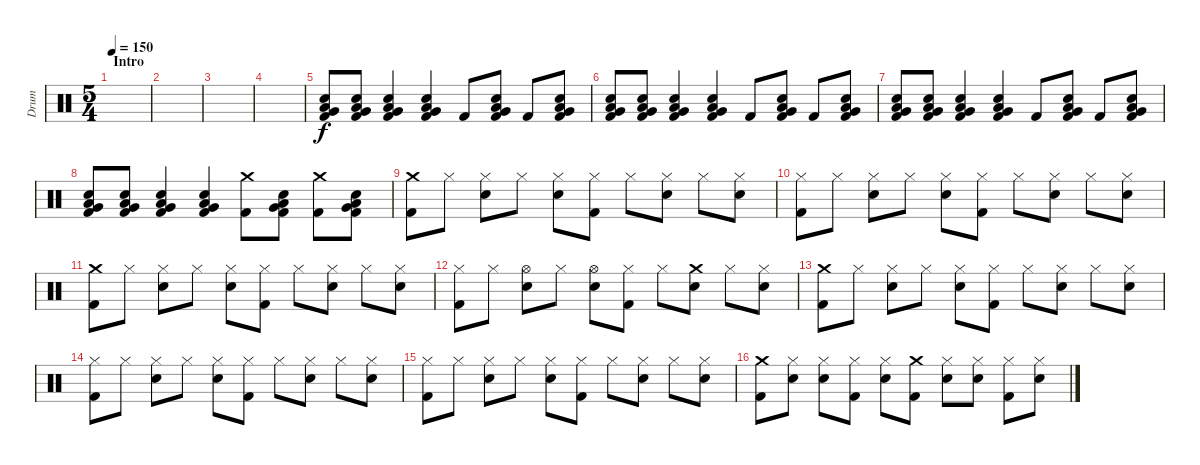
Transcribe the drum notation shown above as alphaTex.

\track ("Drum" "Drum") {instrument percussion}
\staff
\articulation defaults
\ts (5 4)
\section ("" "Intro")
\tempo 150
\clef neutral
\ks c
|
|
|
|
("Low Floor Tom (hit)" "Very Low Tom (hit)" "Electric Snare (hit)" "Kick (hit) 2").8 ("Low Floor Tom (hit)" "Very Low Tom (hit)" "Electric Snare (hit)" "Kick (hit) 2").8 ("Low Floor Tom (hit)" "Very Low Tom (hit)" "Electric Snare (hit)" "Kick (hit) 2").4 ("Low Floor Tom (hit)" "Very Low Tom (hit)" "Electric Snare (hit)" "Kick (hit) 2").4 "Kick (hit) 2".8 ("Low Floor Tom (hit)" "Very Low Tom (hit)" "Electric Snare (hit)" "Kick (hit) 2").8 "Kick (hit) 2".8 ("Low Floor Tom (hit)" "Very Low Tom (hit)" "Electric Snare (hit)" "Kick (hit) 2").8 |
("Low Floor Tom (hit)" "Very Low Tom (hit)" "Electric Snare (hit)" "Kick (hit) 2").8 ("Low Floor Tom (hit)" "Very Low Tom (hit)" "Electric Snare (hit)" "Kick (hit) 2").8 ("Low Floor Tom (hit)" "Very Low Tom (hit)" "Electric Snare (hit)" "Kick (hit) 2").4 ("Low Floor Tom (hit)" "Very Low Tom (hit)" "Electric Snare (hit)" "Kick (hit) 2").4 "Kick (hit) 2".8 ("Low Floor Tom (hit)" "Very Low Tom (hit)" "Electric Snare (hit)" "Kick (hit) 2").8 "Kick (hit) 2".8 ("Low Floor Tom (hit)" "Very Low Tom (hit)" "Electric Snare (hit)" "Kick (hit) 2").8 |
("Low Floor Tom (hit)" "Very Low Tom (hit)" "Electric Snare (hit)" "Kick (hit) 2").8 ("Low Floor Tom (hit)" "Very Low Tom (hit)" "Electric Snare (hit)" "Kick (hit) 2").8 ("Low Floor Tom (hit)" "Very Low Tom (hit)" "Electric Snare (hit)" "Kick (hit) 2").4 ("Low Floor Tom (hit)" "Very Low Tom (hit)" "Electric Snare (hit)" "Kick (hit) 2").4 "Kick (hit) 2".8 ("Low Floor Tom (hit)" "Very Low Tom (hit)" "Electric Snare (hit)" "Kick (hit) 2").8 "Kick (hit) 2".8 ("Low Floor Tom (hit)" "Very Low Tom (hit)" "Electric Snare (hit)" "Kick (hit) 2").8 |
("Low Floor Tom (hit)" "Very Low Tom (hit)" "Electric Snare (hit)" "Kick (hit) 2").8 ("Low Floor Tom (hit)" "Very Low Tom (hit)" "Electric Snare (hit)" "Kick (hit) 2").8 ("Low Floor Tom (hit)" "Very Low Tom (hit)" "Electric Snare (hit)" "Kick (hit) 2").4 ("Low Floor Tom (hit)" "Very Low Tom (hit)" "Electric Snare (hit)" "Kick (hit) 2").4 ("Crash medium (hit)" "Kick (hit) 2").8 ("Low Floor Tom (hit)" "Very Low Tom (hit)" "Electric Snare (hit)" "Kick (hit) 2").8 ("Crash medium (hit)" "Kick (hit) 2").8 ("Low Floor Tom (hit)" "Very Low Tom (hit)" "Electric Snare (hit)" "Kick (hit) 2").8 |
("Crash medium (hit)" "Kick (hit) 2").8 "Hi-Hat (closed)".8 ("Hi-Hat (closed)" "Electric Snare (hit)").8 "Hi-Hat (closed)".8 ("Hi-Hat (closed)" "Electric Snare (hit)").8 ("Hi-Hat (closed)" "Kick (hit) 2").8 "Hi-Hat (closed)".8 ("Hi-Hat (closed)" "Electric Snare (hit)").8 "Hi-Hat (closed)".8 ("Hi-Hat (closed)" "Electric Snare (hit)").8 |
("Hi-Hat (closed)" "Kick (hit) 2").8 "Hi-Hat (closed)".8 ("Hi-Hat (closed)" "Electric Snare (hit)").8 "Hi-Hat (closed)".8 ("Hi-Hat (closed)" "Electric Snare (hit)").8 ("Hi-Hat (closed)" "Kick (hit) 2").8 "Hi-Hat (closed)".8 ("Hi-Hat (closed)" "Electric Snare (hit)").8 "Hi-Hat (closed)".8 ("Hi-Hat (closed)" "Electric Snare (hit)").8 |
("Crash medium (hit)" "Kick (hit) 2").8 "Hi-Hat (closed)".8 ("Hi-Hat (closed)" "Electric Snare (hit)").8 "Hi-Hat (closed)".8 ("Hi-Hat (closed)" "Electric Snare (hit)").8 ("Hi-Hat (closed)" "Kick (hit) 2").8 "Hi-Hat (closed)".8 ("Hi-Hat (closed)" "Electric Snare (hit)").8 "Hi-Hat (closed)".8 ("Hi-Hat (closed)" "Electric Snare (hit)").8 |
("Hi-Hat (closed)" "Kick (hit) 2").8 "Hi-Hat (closed)".8 ("Hi-Hat (open)" "Electric Snare (hit)").8 "Hi-Hat (closed)".8 ("Hi-Hat (open)" "Electric Snare (hit)").8 ("Hi-Hat (closed)" "Kick (hit) 2").8 "Hi-Hat (closed)".8 ("Crash medium (hit)" "Electric Snare (hit)").8 "Hi-Hat (closed)".8 ("Hi-Hat (closed)" "Electric Snare (hit)").8 |
("Crash medium (hit)" "Kick (hit) 2").8 "Hi-Hat (closed)".8 ("Hi-Hat (closed)" "Electric Snare (hit)").8 "Hi-Hat (closed)".8 ("Hi-Hat (closed)" "Electric Snare (hit)").8 ("Hi-Hat (closed)" "Kick (hit) 2").8 "Hi-Hat (closed)".8 ("Hi-Hat (closed)" "Electric Snare (hit)").8 "Hi-Hat (closed)".8 ("Hi-Hat (closed)" "Electric Snare (hit)").8 |
("Hi-Hat (closed)" "Kick (hit) 2").8 "Hi-Hat (closed)".8 ("Hi-Hat (closed)" "Electric Snare (hit)").8 "Hi-Hat (closed)".8 ("Hi-Hat (closed)" "Electric Snare (hit)").8 ("Hi-Hat (closed)" "Kick (hit) 2").8 "Hi-Hat (closed)".8 ("Hi-Hat (closed)" "Electric Snare (hit)").8 "Hi-Hat (closed)".8 ("Hi-Hat (closed)" "Electric Snare (hit)").8 |
("Hi-Hat (closed)" "Kick (hit) 2").8 "Hi-Hat (closed)".8 ("Hi-Hat (closed)" "Electric Snare (hit)").8 "Hi-Hat (closed)".8 ("Hi-Hat (closed)" "Electric Snare (hit)").8 ("Hi-Hat (closed)" "Kick (hit) 2").8 "Hi-Hat (closed)".8 ("Hi-Hat (closed)" "Electric Snare (hit)").8 "Hi-Hat (closed)".8 ("Hi-Hat (closed)" "Electric Snare (hit)").8 |
("Crash medium (hit)" "Kick (hit) 2").8 ("Hi-Hat (closed)" "Electric Snare (hit)").8 ("Hi-Hat (closed)" "Electric Snare (hit)").8 ("Hi-Hat (closed)" "Kick (hit) 2").8 ("Hi-Hat (closed)" "Electric Snare (hit)").8 ("Crash medium (hit)" "Kick (hit) 2").8 ("Hi-Hat (closed)" "Electric Snare (hit)").8 ("Hi-Hat (closed)" "Electric Snare (hit)").8 ("Hi-Hat (closed)" "Kick (hit) 2").8 ("Hi-Hat (closed)" "Electric Snare (hit)").8
